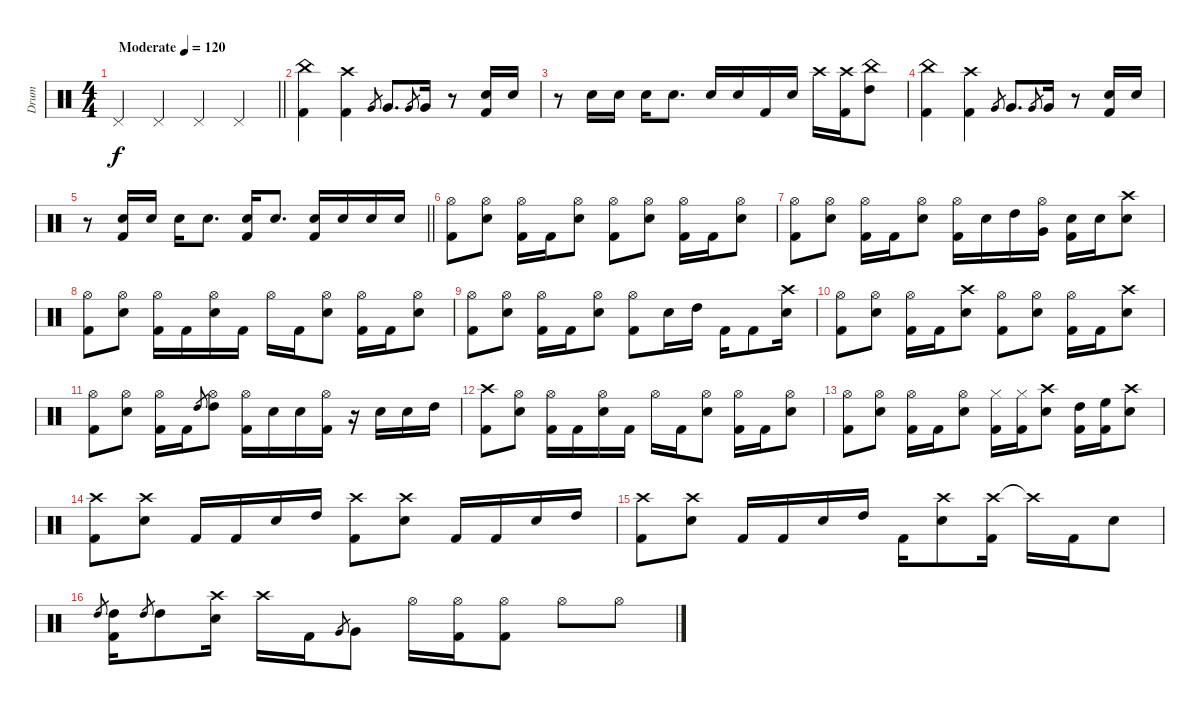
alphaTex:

\track ("Drum" "Drum") {instrument percussion}
\staff {score}
\articulation defaults
\ts (4 4)
\tempo (120 "Moderate")
\clef neutral
\barLineRight lightlight
\ks c "Pedal Hi-Hat (hit)".4{dy f} "Pedal Hi-Hat (hit)".4 "Pedal Hi-Hat (hit)".4 "Pedal Hi-Hat (hit)".4
|
("China (hit)" "Kick (hit) 2").4 ("Crash high (hit)" "Kick (hit) 2").4 "Very Low Tom (hit)".8{gr} "Very Low Tom (hit)".8{d} "Very Low Tom (hit)".8{gr} "Very Low Tom (hit)".16 r.8 ("Snare (hit) 2" "Kick (hit) 2").16 "Snare (hit) 2".16 |
r.8 "Snare (hit) 2".16 "Snare (hit) 2".16 "Snare (hit) 2".16 "Snare (hit) 2".8{d} "Snare (hit) 2".16 "Snare (hit) 2".16 "Kick (hit) 2".16 "Snare (hit) 2".16 "Crash high (hit)".16 ("Crash high (hit)" "Kick (hit) 2").16 ("China (hit)" "High Tom (hit)").8 |
("China (hit)" "Kick (hit) 2").4 ("Crash high (hit)" "Kick (hit) 2").4 "Very Low Tom (hit)".8{gr} "Very Low Tom (hit)".8{d} "Very Low Tom (hit)".8{gr} "Very Low Tom (hit)".16 r.8 ("Snare (hit) 2" "Kick (hit) 2").16 "Snare (hit) 2".16 |
\barLineRight lightlight
r.8 ("Snare (hit) 2" "Kick (hit) 2").16 "Snare (hit) 2".16 "Snare (hit) 2".16 "Snare (hit) 2".8{d} ("Snare (hit) 2" "Kick (hit) 2").16 "Snare (hit) 2".8{d} ("Snare (hit) 2" "Kick (hit) 2").16 "Snare (hit) 2".16 "Snare (hit) 2".16 "Snare (hit) 2".16 |
("Hi-Hat (open)" "Kick (hit) 2").8 ("Hi-Hat (open)" "Snare (hit) 2").8 ("Hi-Hat (open)" "Kick (hit) 2").16 "Kick (hit) 2".16 ("Hi-Hat (open)" "Snare (hit) 2").8 ("Hi-Hat (open)" "Kick (hit) 2").8 ("Hi-Hat (open)" "Snare (hit) 2").8 ("Hi-Hat (open)" "Kick (hit) 2").16 "Kick (hit) 2".16 ("Hi-Hat (open)" "Snare (hit) 2").8 |
("Hi-Hat (open)" "Kick (hit) 2").8 ("Hi-Hat (open)" "Snare (hit) 2").8 ("Hi-Hat (open)" "Kick (hit) 2").16 "Kick (hit) 2".16 ("Hi-Hat (open)" "Snare (hit) 2").8 ("Hi-Hat (open)" "Kick (hit) 2").16 "Snare (hit) 2".16 "High Tom (hit)".16 ("Hi-Hat (open)" "Very Low Tom (hit)").16 ("Snare (hit) 2" "Kick (hit) 2").16 "Snare (hit) 2".16 ("Crash high (hit)" "Snare (hit) 2").8 |
("Hi-Hat (open)" "Kick (hit) 2").8 ("Hi-Hat (open)" "Snare (hit) 2").8 ("Hi-Hat (open)" "Kick (hit) 2").16 "Kick (hit) 2".16 ("Hi-Hat (open)" "Snare (hit) 2").16 "Kick (hit) 2".16 "Hi-Hat (open)".16 "Kick (hit) 2".16 ("Hi-Hat (open)" "Snare (hit) 2").8 ("Hi-Hat (open)" "Kick (hit) 2").16 "Kick (hit) 2".16 ("Hi-Hat (open)" "Snare (hit) 2").8 |
("Hi-Hat (open)" "Kick (hit) 2").8 ("Hi-Hat (open)" "Snare (hit) 2").8 ("Hi-Hat (open)" "Kick (hit) 2").16 "Kick (hit) 2".16 ("Hi-Hat (open)" "Snare (hit) 2").8 ("Hi-Hat (open)" "Kick (hit) 2").8 "Snare (hit) 2".16 "High Tom (hit)".16 "Kick (hit) 2".16 "Kick (hit) 2".8 ("Crash high (hit)" "Snare (hit) 2").16 |
("Hi-Hat (open)" "Kick (hit) 2").8 ("Hi-Hat (open)" "Snare (hit) 2").8 ("Hi-Hat (open)" "Kick (hit) 2").16 "Kick (hit) 2".16 ("Crash high (hit)" "Snare (hit) 2").8 ("Hi-Hat (open)" "Kick (hit) 2").8 ("Hi-Hat (open)" "Snare (hit) 2").8 ("Hi-Hat (open)" "Kick (hit) 2").16 "Kick (hit) 2".16 ("Crash high (hit)" "Snare (hit) 2").8 |
("Hi-Hat (open)" "Kick (hit) 2").8 ("Hi-Hat (open)" "Snare (hit) 2").8 ("Hi-Hat (open)" "Kick (hit) 2").16 "Kick (hit) 2".16 "High Tom (hit)".8{gr} ("Hi-Hat (open)" "High Tom (hit)").8 ("Hi-Hat (open)" "Kick (hit) 2").16 "Snare (hit) 2".16 "Snare (hit) 2".16 ("Hi-Hat (open)" "Kick (hit) 2").16 r.16 "Snare (hit) 2".16 "Snare (hit) 2".16 "High Tom (hit)".16 |
("Crash high (hit)" "Kick (hit) 2").8 ("Hi-Hat (open)" "Snare (hit) 2").8 ("Hi-Hat (open)" "Kick (hit) 2").16 "Kick (hit) 2".16 ("Hi-Hat (open)" "Snare (hit) 2").16 "Kick (hit) 2".16 "Hi-Hat (open)".16 "Kick (hit) 2".16 ("Hi-Hat (open)" "Snare (hit) 2").8 ("Hi-Hat (open)" "Kick (hit) 2").16 "Kick (hit) 2".16 ("Hi-Hat (open)" "Snare (hit) 2").8 |
("Hi-Hat (open)" "Kick (hit) 2").8 ("Hi-Hat (open)" "Snare (hit) 2").8 ("Hi-Hat (open)" "Kick (hit) 2").16 "Kick (hit) 2".16 ("Hi-Hat (open)" "Snare (hit) 2").8 ("Hi-Hat (closed)" "Kick (hit) 2").16 ("Hi-Hat (closed)" "Kick (hit) 2").16 ("Crash high (hit)" "Snare (hit) 2").8 ("High Tom (hit)" "Kick (hit) 2").16 ("High Floor Tom (hit)" "Kick (hit) 2").16 ("Crash high (hit)" "Snare (hit) 2").8 |
("Crash high (hit)" "Kick (hit) 2").8 ("Crash high (hit)" "Snare (hit) 2").8 "Kick (hit) 2".16 "Kick (hit) 2".16 "Snare (hit) 2".16 "High Tom (hit)".16 ("Crash high (hit)" "Kick (hit) 2").8 ("Crash high (hit)" "Snare (hit) 2").8 "Kick (hit) 2".16 "Kick (hit) 2".16 "Snare (hit) 2".16 "High Tom (hit)".16 |
("Crash high (hit)" "Kick (hit) 2").8 ("Crash high (hit)" "Snare (hit) 2").8 "Kick (hit) 2".16 "Kick (hit) 2".16 "Snare (hit) 2".16 "High Tom (hit)".16 "Kick (hit) 2".16 ("Crash high (hit)" "Snare (hit) 2").8 ("Crash high (hit)" "Kick (hit) 2").16 "Crash high (hit)"{t}.16 "Kick (hit) 2".16 "Snare (hit) 2".8 |
"High Tom (hit)".8{gr} ("High Tom (hit)" "Kick (hit) 2").16 "High Tom (hit)".8{gr} "High Tom (hit)".8 ("Crash high (hit)" "Snare (hit) 2").16 "Crash high (hit)".16 "Kick (hit) 2".16 "Very Low Tom (hit)".8{gr} "Very Low Tom (hit)".8 "Hi-Hat (open)".16 ("Hi-Hat (open)" "Kick (hit) 2").16 ("Hi-Hat (open)" "Kick (hit) 2").8 "Hi-Hat (open)".8 "Hi-Hat (open)".8
